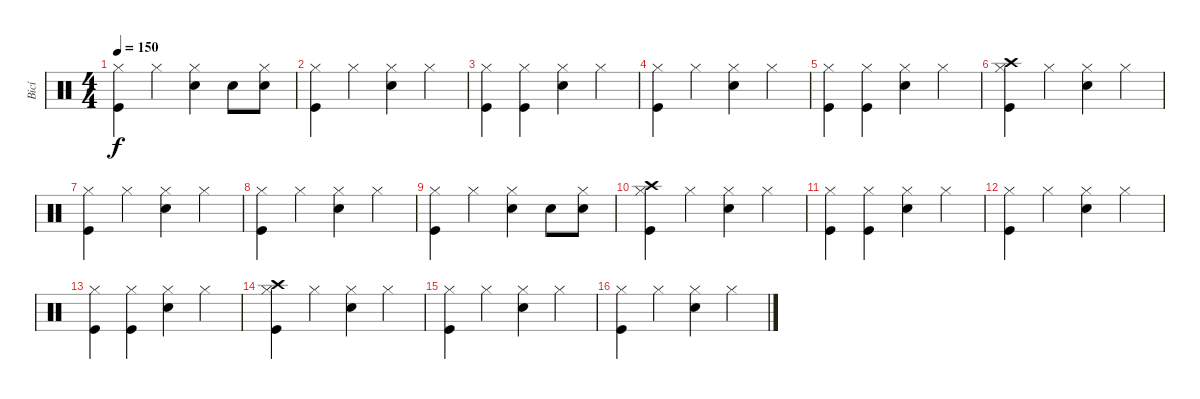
\track ("Bicí" "Bicí") {instrument percussion}
\staff {score}
\articulation defaults
\ts (4 4)
\tempo 150
\clef neutral
\ks c
("Kick (hit)" "Hi-Hat (closed)").4{dy f} "Hi-Hat (closed)".4 ("Snare (hit) 2" "Hi-Hat (closed)").4 "Snare (hit) 2".8 ("Snare (hit) 2" "Hi-Hat (closed)").8 |
("Kick (hit)" "Hi-Hat (closed)").4 "Hi-Hat (closed)".4 ("Snare (hit) 2" "Hi-Hat (closed)").4 "Hi-Hat (closed)".4 |
("Kick (hit)" "Hi-Hat (closed)").4 ("Kick (hit)" "Hi-Hat (closed)").4 ("Snare (hit) 2" "Hi-Hat (closed)").4 "Hi-Hat (closed)".4 |
("Kick (hit)" "Hi-Hat (closed)").4 "Hi-Hat (closed)".4 ("Snare (hit) 2" "Hi-Hat (closed)").4 "Hi-Hat (closed)".4 |
("Kick (hit)" "Hi-Hat (closed)").4 ("Kick (hit)" "Hi-Hat (closed)").4 ("Snare (hit) 2" "Hi-Hat (closed)").4 "Hi-Hat (closed)".4 |
("Kick (hit)" "Crash high (hit)" "Hi-Hat (closed)").4 "Hi-Hat (closed)".4 ("Snare (hit) 2" "Hi-Hat (closed)").4 "Hi-Hat (closed)".4 |
("Kick (hit)" "Hi-Hat (closed)").4 "Hi-Hat (closed)".4 ("Snare (hit) 2" "Hi-Hat (closed)").4 "Hi-Hat (closed)".4 |
("Kick (hit)" "Hi-Hat (closed)").4 "Hi-Hat (closed)".4 ("Snare (hit) 2" "Hi-Hat (closed)").4 "Hi-Hat (closed)".4 |
("Kick (hit)" "Hi-Hat (closed)").4 "Hi-Hat (closed)".4 ("Snare (hit) 2" "Hi-Hat (closed)").4 "Snare (hit) 2".8 ("Snare (hit) 2" "Hi-Hat (closed)").8 |
("Kick (hit)" "Crash high (hit)" "Hi-Hat (closed)").4 "Hi-Hat (closed)".4 ("Snare (hit) 2" "Hi-Hat (closed)").4 "Hi-Hat (closed)".4 |
("Kick (hit)" "Hi-Hat (closed)").4 ("Kick (hit)" "Hi-Hat (closed)").4 ("Snare (hit) 2" "Hi-Hat (closed)").4 "Hi-Hat (closed)".4 |
("Kick (hit)" "Hi-Hat (closed)").4 "Hi-Hat (closed)".4 ("Snare (hit) 2" "Hi-Hat (closed)").4 "Hi-Hat (closed)".4 |
("Kick (hit)" "Hi-Hat (closed)").4 ("Kick (hit)" "Hi-Hat (closed)").4 ("Snare (hit) 2" "Hi-Hat (closed)").4 "Hi-Hat (closed)".4 |
("Kick (hit)" "Crash high (hit)" "Hi-Hat (closed)").4 "Hi-Hat (closed)".4 ("Snare (hit) 2" "Hi-Hat (closed)").4 "Hi-Hat (closed)".4 |
("Kick (hit)" "Hi-Hat (closed)").4 "Hi-Hat (closed)".4 ("Snare (hit) 2" "Hi-Hat (closed)").4 "Hi-Hat (closed)".4 |
("Kick (hit)" "Hi-Hat (closed)").4 "Hi-Hat (closed)".4 ("Snare (hit) 2" "Hi-Hat (closed)").4 "Hi-Hat (closed)".4
